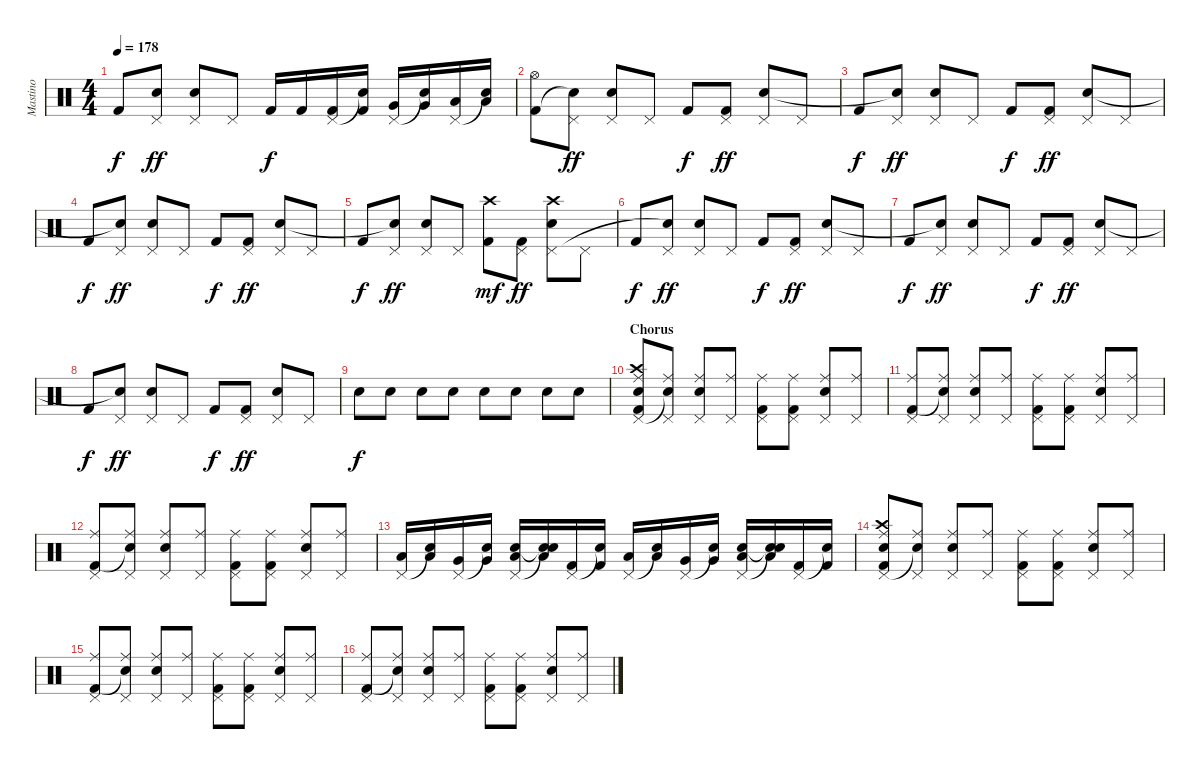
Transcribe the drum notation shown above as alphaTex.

\track ("Mastino" "Mastino") {instrument percussion}
\staff {score}
\articulation defaults
\ts (4 4)
\tempo 178
\clef neutral
\ks c "Kick (hit) 2".8{dy f}
("Pedal Hi-Hat (hit)" "Snare (hit)"{t}).8{dy ff} ("Pedal Hi-Hat (hit)" "Electric Snare (hit)").8 "Pedal Hi-Hat (hit)".8 "Kick (hit) 2".16{dy f} "Kick (hit) 2".16 ("Pedal Hi-Hat (hit)" "Kick (hit) 2").16 ("Snare (hit)"{t} "Kick (hit) 2").16 ("Pedal Hi-Hat (hit)" "Very Low Tom (hit)").16 ("Snare (hit)"{t} "Very Low Tom (hit)").16 ("Pedal Hi-Hat (hit)" "Low Floor Tom (hit)").16 ("Snare (hit)"{t} "Low Floor Tom (hit)").16 |
("Hi-Hat (open)" "Kick (hit) 2").8 ("Pedal Hi-Hat (hit)" "Snare (hit)"{t}).8{dy ff} ("Pedal Hi-Hat (hit)" "Electric Snare (hit)").8 "Pedal Hi-Hat (hit)".8 "Kick (hit) 2".8{dy f} ("Pedal Hi-Hat (hit)" "Kick (hit) 2").8{dy ff} ("Pedal Hi-Hat (hit)" "Electric Snare (hit)").8 "Pedal Hi-Hat (hit)".8 |
"Kick (hit) 2".8{dy f} ("Pedal Hi-Hat (hit)" "Snare (hit)"{t}).8{dy ff} ("Pedal Hi-Hat (hit)" "Electric Snare (hit)").8 "Pedal Hi-Hat (hit)".8 "Kick (hit) 2".8{dy f} ("Pedal Hi-Hat (hit)" "Kick (hit) 2").8{dy ff} ("Pedal Hi-Hat (hit)" "Electric Snare (hit)").8 "Pedal Hi-Hat (hit)".8 |
"Kick (hit) 2".8{dy f} ("Pedal Hi-Hat (hit)" "Snare (hit)"{t}).8{dy ff} ("Pedal Hi-Hat (hit)" "Electric Snare (hit)").8 "Pedal Hi-Hat (hit)".8 "Kick (hit) 2".8{dy f} ("Pedal Hi-Hat (hit)" "Kick (hit) 2").8{dy ff} ("Pedal Hi-Hat (hit)" "Electric Snare (hit)").8 "Pedal Hi-Hat (hit)".8 |
"Kick (hit) 2".8{dy f} ("Pedal Hi-Hat (hit)" "Snare (hit)"{t}).8{dy ff} ("Pedal Hi-Hat (hit)" "Electric Snare (hit)").8 "Pedal Hi-Hat (hit)".8 ("Crash high (hit)" "Kick (hit) 2").8{dy mf} ("Pedal Hi-Hat (hit)" "Kick (hit) 2").8{dy ff} ("Crash high (hit)" "Pedal Hi-Hat (hit)" "Electric Snare (hit)").8 "Pedal Hi-Hat (hit)".8 |
"Kick (hit) 2".8{dy f} ("Pedal Hi-Hat (hit)" "Snare (hit)"{t}).8{dy ff} ("Pedal Hi-Hat (hit)" "Electric Snare (hit)").8 "Pedal Hi-Hat (hit)".8 "Kick (hit) 2".8{dy f} ("Pedal Hi-Hat (hit)" "Kick (hit) 2").8{dy ff} ("Pedal Hi-Hat (hit)" "Electric Snare (hit)").8 "Pedal Hi-Hat (hit)".8 |
"Kick (hit) 2".8{dy f} ("Pedal Hi-Hat (hit)" "Snare (hit)"{t}).8{dy ff} ("Pedal Hi-Hat (hit)" "Electric Snare (hit)").8 "Pedal Hi-Hat (hit)".8 "Kick (hit) 2".8{dy f} ("Pedal Hi-Hat (hit)" "Kick (hit) 2").8{dy ff} ("Pedal Hi-Hat (hit)" "Electric Snare (hit)").8 "Pedal Hi-Hat (hit)".8 |
"Kick (hit) 2".8{dy f} ("Pedal Hi-Hat (hit)" "Snare (hit)"{t}).8{dy ff} ("Pedal Hi-Hat (hit)" "Electric Snare (hit)").8 "Pedal Hi-Hat (hit)".8 "Kick (hit) 2".8{dy f} ("Pedal Hi-Hat (hit)" "Kick (hit) 2").8{dy ff} ("Pedal Hi-Hat (hit)" "Electric Snare (hit)").8 "Pedal Hi-Hat (hit)".8 |
"Electric Snare (hit)".8{dy f} "Electric Snare (hit)".8 "Electric Snare (hit)".8 "Electric Snare (hit)".8 "Electric Snare (hit)".8 "Electric Snare (hit)".8 "Electric Snare (hit)".8 "Electric Snare (hit)".8 |
\section ("" "Chorus")
("Crash high (hit)" "Ride (middle)" "Pedal Hi-Hat (hit)" "Snare (hit)" "Kick (hit) 2").8 ("Ride (middle)" "Pedal Hi-Hat (hit)" "Snare (hit)"{t}).8 ("Ride (middle)" "Pedal Hi-Hat (hit)" "Electric Snare (hit)").8 ("Ride (middle)" "Pedal Hi-Hat (hit)").8 ("Ride (middle)" "Pedal Hi-Hat (hit)" "Kick (hit) 2").8 ("Ride (middle)" "Pedal Hi-Hat (hit)" "Kick (hit) 2").8 ("Ride (middle)" "Pedal Hi-Hat (hit)" "Electric Snare (hit)").8 ("Ride (middle)" "Pedal Hi-Hat (hit)").8 |
("Ride (middle)" "Pedal Hi-Hat (hit)" "Kick (hit) 2").8 ("Ride (middle)" "Pedal Hi-Hat (hit)" "Snare (hit)"{t}).8 ("Ride (middle)" "Pedal Hi-Hat (hit)" "Electric Snare (hit)").8 ("Ride (middle)" "Pedal Hi-Hat (hit)").8 ("Ride (middle)" "Pedal Hi-Hat (hit)" "Kick (hit) 2").8 ("Ride (middle)" "Pedal Hi-Hat (hit)" "Kick (hit) 2").8 ("Ride (middle)" "Pedal Hi-Hat (hit)" "Electric Snare (hit)").8 ("Ride (middle)" "Pedal Hi-Hat (hit)").8 |
("Ride (middle)" "Pedal Hi-Hat (hit)" "Kick (hit) 2").8 ("Ride (middle)" "Pedal Hi-Hat (hit)" "Snare (hit)"{t}).8 ("Ride (middle)" "Pedal Hi-Hat (hit)" "Electric Snare (hit)").8 ("Ride (middle)" "Pedal Hi-Hat (hit)").8 ("Ride (middle)" "Pedal Hi-Hat (hit)" "Kick (hit) 2").8 ("Ride (middle)" "Pedal Hi-Hat (hit)" "Kick (hit) 2").8 ("Ride (middle)" "Pedal Hi-Hat (hit)" "Electric Snare (hit)").8 ("Ride (middle)" "Pedal Hi-Hat (hit)").8 |
("Pedal Hi-Hat (hit)" "Low Tom (hit)").16 ("Snare (hit)"{t} "Low Tom (hit)").16 ("Pedal Hi-Hat (hit)" "Very Low Tom (hit)").16 ("Snare (hit)"{t} "Very Low Tom (hit)").16 ("Pedal Hi-Hat (hit)" "Electric Snare (hit)" "Low Floor Tom (hit)").16 ("Snare (hit)"{t} "Electric Snare (hit)"{t} "Low Floor Tom (hit)").16 ("Pedal Hi-Hat (hit)" "Kick (hit) 2").16 ("Snare (hit)"{t} "Kick (hit) 2").16 ("Pedal Hi-Hat (hit)" "Low Tom (hit)").16 ("Snare (hit)"{t} "Low Tom (hit)").16 ("Pedal Hi-Hat (hit)" "Very Low Tom (hit)").16 ("Snare (hit)"{t} "Very Low Tom (hit)").16 ("Pedal Hi-Hat (hit)" "Electric Snare (hit)" "Low Floor Tom (hit)").16 ("Snare (hit)"{t} "Electric Snare (hit)"{t} "Low Floor Tom (hit)").16 ("Pedal Hi-Hat (hit)" "Kick (hit) 2").16 ("Snare (hit)"{t} "Kick (hit) 2").16 |
("Crash high (hit)" "Ride (middle)" "Pedal Hi-Hat (hit)" "Snare (hit)" "Kick (hit) 2").8 ("Ride (middle)" "Pedal Hi-Hat (hit)" "Snare (hit)"{t}).8 ("Ride (middle)" "Pedal Hi-Hat (hit)" "Electric Snare (hit)").8 ("Ride (middle)" "Pedal Hi-Hat (hit)").8 ("Ride (middle)" "Pedal Hi-Hat (hit)" "Kick (hit) 2").8 ("Ride (middle)" "Pedal Hi-Hat (hit)" "Kick (hit) 2").8 ("Ride (middle)" "Pedal Hi-Hat (hit)" "Electric Snare (hit)").8 ("Ride (middle)" "Pedal Hi-Hat (hit)").8 |
("Ride (middle)" "Pedal Hi-Hat (hit)" "Kick (hit) 2").8 ("Ride (middle)" "Pedal Hi-Hat (hit)" "Snare (hit)"{t}).8 ("Ride (middle)" "Pedal Hi-Hat (hit)" "Electric Snare (hit)").8 ("Ride (middle)" "Pedal Hi-Hat (hit)").8 ("Ride (middle)" "Pedal Hi-Hat (hit)" "Kick (hit) 2").8 ("Ride (middle)" "Pedal Hi-Hat (hit)" "Kick (hit) 2").8 ("Ride (middle)" "Pedal Hi-Hat (hit)" "Electric Snare (hit)").8 ("Ride (middle)" "Pedal Hi-Hat (hit)").8 |
("Ride (middle)" "Pedal Hi-Hat (hit)" "Kick (hit) 2").8 ("Ride (middle)" "Pedal Hi-Hat (hit)" "Snare (hit)"{t}).8 ("Ride (middle)" "Pedal Hi-Hat (hit)" "Electric Snare (hit)").8 ("Ride (middle)" "Pedal Hi-Hat (hit)").8 ("Ride (middle)" "Pedal Hi-Hat (hit)" "Kick (hit) 2").8 ("Ride (middle)" "Pedal Hi-Hat (hit)" "Kick (hit) 2").8 ("Ride (middle)" "Pedal Hi-Hat (hit)" "Electric Snare (hit)").8 ("Ride (middle)" "Pedal Hi-Hat (hit)").8
